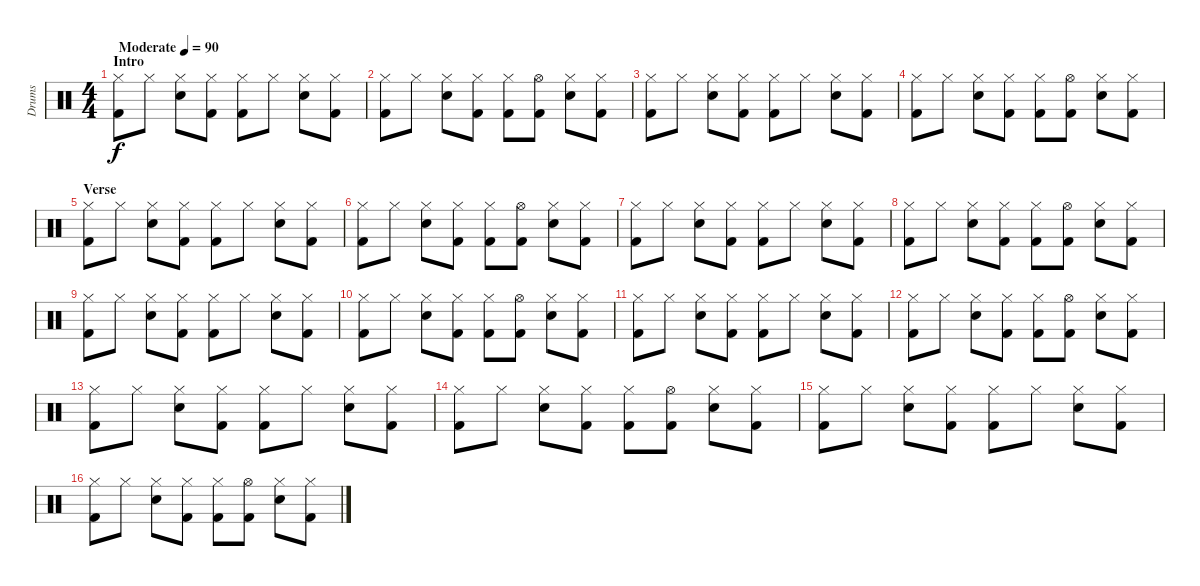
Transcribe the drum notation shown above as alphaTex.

\track ("Drums" "Drums") {instrument percussion}
\staff {score}
\articulation defaults
\ts (4 4)
\section ("" "Intro")
\tempo (90 "Moderate")
\clef neutral
\ks c
("Hi-Hat (closed)" "Kick (hit) 2").8{dy f} "Hi-Hat (closed)".8 ("Hi-Hat (closed)" "Electric Snare (hit)").8 ("Hi-Hat (closed)" "Kick (hit) 2").8 ("Hi-Hat (closed)" "Kick (hit) 2").8 "Hi-Hat (closed)".8 ("Hi-Hat (closed)" "Electric Snare (hit)").8 ("Hi-Hat (closed)" "Kick (hit) 2").8 |
("Hi-Hat (closed)" "Kick (hit) 2").8 "Hi-Hat (closed)".8 ("Hi-Hat (closed)" "Electric Snare (hit)").8 ("Hi-Hat (closed)" "Kick (hit) 2").8 ("Hi-Hat (closed)" "Kick (hit) 2").8 ("Hi-Hat (open)" "Kick (hit) 2").8 ("Hi-Hat (closed)" "Electric Snare (hit)").8 ("Hi-Hat (closed)" "Kick (hit) 2").8 |
("Hi-Hat (closed)" "Kick (hit) 2").8 "Hi-Hat (closed)".8 ("Hi-Hat (closed)" "Electric Snare (hit)").8 ("Hi-Hat (closed)" "Kick (hit) 2").8 ("Hi-Hat (closed)" "Kick (hit) 2").8 "Hi-Hat (closed)".8 ("Hi-Hat (closed)" "Electric Snare (hit)").8 ("Hi-Hat (closed)" "Kick (hit) 2").8 |
("Hi-Hat (closed)" "Kick (hit) 2").8 "Hi-Hat (closed)".8 ("Hi-Hat (closed)" "Electric Snare (hit)").8 ("Hi-Hat (closed)" "Kick (hit) 2").8 ("Hi-Hat (closed)" "Kick (hit) 2").8 ("Hi-Hat (open)" "Kick (hit) 2").8 ("Hi-Hat (closed)" "Electric Snare (hit)").8 ("Hi-Hat (closed)" "Kick (hit) 2").8 |
\section ("" "Verse")
("Hi-Hat (closed)" "Kick (hit) 2").8 "Hi-Hat (closed)".8 ("Hi-Hat (closed)" "Electric Snare (hit)").8 ("Hi-Hat (closed)" "Kick (hit) 2").8 ("Hi-Hat (closed)" "Kick (hit) 2").8 "Hi-Hat (closed)".8 ("Hi-Hat (closed)" "Electric Snare (hit)").8 ("Hi-Hat (closed)" "Kick (hit) 2").8 |
("Hi-Hat (closed)" "Kick (hit) 2").8 "Hi-Hat (closed)".8 ("Hi-Hat (closed)" "Electric Snare (hit)").8 ("Hi-Hat (closed)" "Kick (hit) 2").8 ("Hi-Hat (closed)" "Kick (hit) 2").8 ("Hi-Hat (open)" "Kick (hit) 2").8 ("Hi-Hat (closed)" "Electric Snare (hit)").8 ("Hi-Hat (closed)" "Kick (hit) 2").8 |
("Hi-Hat (closed)" "Kick (hit) 2").8 "Hi-Hat (closed)".8 ("Hi-Hat (closed)" "Electric Snare (hit)").8 ("Hi-Hat (closed)" "Kick (hit) 2").8 ("Hi-Hat (closed)" "Kick (hit) 2").8 "Hi-Hat (closed)".8 ("Hi-Hat (closed)" "Electric Snare (hit)").8 ("Hi-Hat (closed)" "Kick (hit) 2").8 |
("Hi-Hat (closed)" "Kick (hit) 2").8 "Hi-Hat (closed)".8 ("Hi-Hat (closed)" "Electric Snare (hit)").8 ("Hi-Hat (closed)" "Kick (hit) 2").8 ("Hi-Hat (closed)" "Kick (hit) 2").8 ("Hi-Hat (open)" "Kick (hit) 2").8 ("Hi-Hat (closed)" "Electric Snare (hit)").8 ("Hi-Hat (closed)" "Kick (hit) 2").8 |
("Hi-Hat (closed)" "Kick (hit) 2").8 "Hi-Hat (closed)".8 ("Hi-Hat (closed)" "Electric Snare (hit)").8 ("Hi-Hat (closed)" "Kick (hit) 2").8 ("Hi-Hat (closed)" "Kick (hit) 2").8 "Hi-Hat (closed)".8 ("Hi-Hat (closed)" "Electric Snare (hit)").8 ("Hi-Hat (closed)" "Kick (hit) 2").8 |
("Hi-Hat (closed)" "Kick (hit) 2").8 "Hi-Hat (closed)".8 ("Hi-Hat (closed)" "Electric Snare (hit)").8 ("Hi-Hat (closed)" "Kick (hit) 2").8 ("Hi-Hat (closed)" "Kick (hit) 2").8 ("Hi-Hat (open)" "Kick (hit) 2").8 ("Hi-Hat (closed)" "Electric Snare (hit)").8 ("Hi-Hat (closed)" "Kick (hit) 2").8 |
("Hi-Hat (closed)" "Kick (hit) 2").8 "Hi-Hat (closed)".8 ("Hi-Hat (closed)" "Electric Snare (hit)").8 ("Hi-Hat (closed)" "Kick (hit) 2").8 ("Hi-Hat (closed)" "Kick (hit) 2").8 "Hi-Hat (closed)".8 ("Hi-Hat (closed)" "Electric Snare (hit)").8 ("Hi-Hat (closed)" "Kick (hit) 2").8 |
("Hi-Hat (closed)" "Kick (hit) 2").8 "Hi-Hat (closed)".8 ("Hi-Hat (closed)" "Electric Snare (hit)").8 ("Hi-Hat (closed)" "Kick (hit) 2").8 ("Hi-Hat (closed)" "Kick (hit) 2").8 ("Hi-Hat (open)" "Kick (hit) 2").8 ("Hi-Hat (closed)" "Electric Snare (hit)").8 ("Hi-Hat (closed)" "Kick (hit) 2").8 |
("Hi-Hat (closed)" "Kick (hit) 2").8 "Hi-Hat (closed)".8 ("Hi-Hat (closed)" "Electric Snare (hit)").8 ("Hi-Hat (closed)" "Kick (hit) 2").8 ("Hi-Hat (closed)" "Kick (hit) 2").8 "Hi-Hat (closed)".8 ("Hi-Hat (closed)" "Electric Snare (hit)").8 ("Hi-Hat (closed)" "Kick (hit) 2").8 |
("Hi-Hat (closed)" "Kick (hit) 2").8 "Hi-Hat (closed)".8 ("Hi-Hat (closed)" "Electric Snare (hit)").8 ("Hi-Hat (closed)" "Kick (hit) 2").8 ("Hi-Hat (closed)" "Kick (hit) 2").8 ("Hi-Hat (open)" "Kick (hit) 2").8 ("Hi-Hat (closed)" "Electric Snare (hit)").8 ("Hi-Hat (closed)" "Kick (hit) 2").8 |
("Hi-Hat (closed)" "Kick (hit) 2").8 "Hi-Hat (closed)".8 ("Hi-Hat (closed)" "Electric Snare (hit)").8 ("Hi-Hat (closed)" "Kick (hit) 2").8 ("Hi-Hat (closed)" "Kick (hit) 2").8 "Hi-Hat (closed)".8 ("Hi-Hat (closed)" "Electric Snare (hit)").8 ("Hi-Hat (closed)" "Kick (hit) 2").8 |
("Hi-Hat (closed)" "Kick (hit) 2").8 "Hi-Hat (closed)".8 ("Hi-Hat (closed)" "Electric Snare (hit)").8 ("Hi-Hat (closed)" "Kick (hit) 2").8 ("Hi-Hat (closed)" "Kick (hit) 2").8 ("Hi-Hat (open)" "Kick (hit) 2").8 ("Hi-Hat (closed)" "Electric Snare (hit)").8 ("Hi-Hat (closed)" "Kick (hit) 2").8
